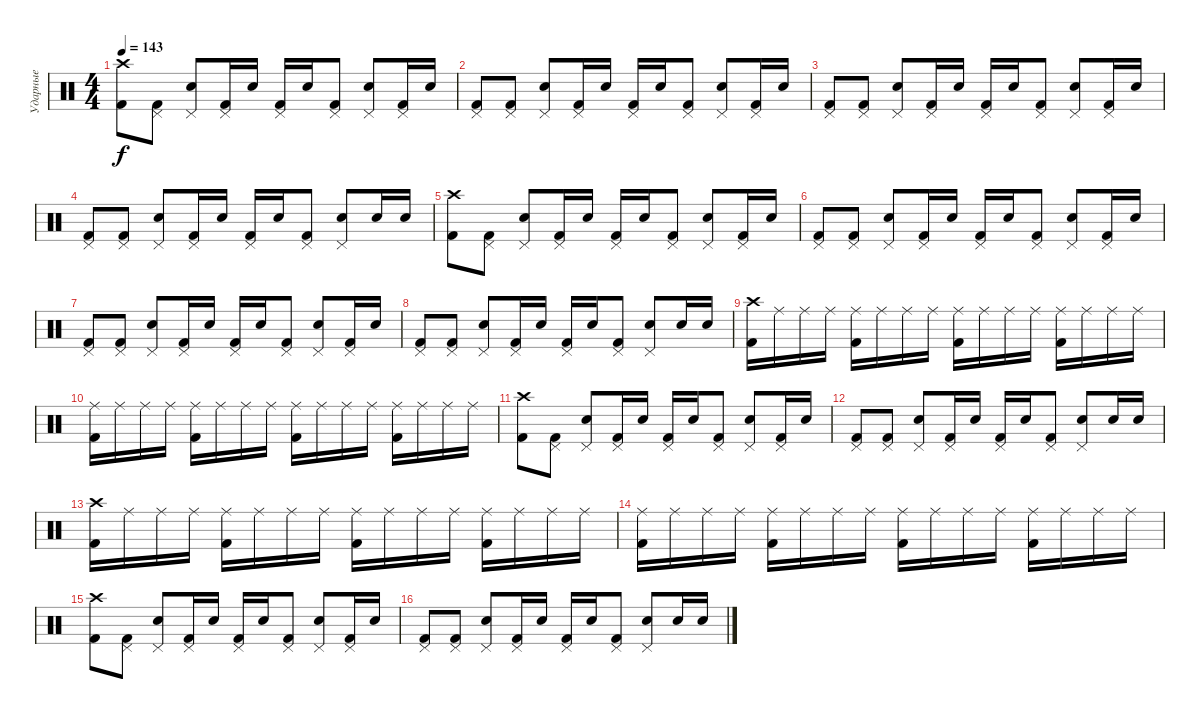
\track ("Ударные" "Ударные") {instrument percussion}
\staff {score}
\articulation defaults
\ts (4 4)
\tempo 143
\clef neutral
\ks c
("Crash high (hit)" "Kick (hit) 2").8{dy f} ("Pedal Hi-Hat (hit)" "Kick (hit) 2").8 ("Pedal Hi-Hat (hit)" "Electric Snare (hit)").8 ("Pedal Hi-Hat (hit)" "Kick (hit) 2").16 "Electric Snare (hit)".16 ("Pedal Hi-Hat (hit)" "Kick (hit) 2").16 "Electric Snare (hit)".16 ("Pedal Hi-Hat (hit)" "Kick (hit) 2").8 ("Pedal Hi-Hat (hit)" "Electric Snare (hit)").8 ("Pedal Hi-Hat (hit)" "Kick (hit) 2").16 "Electric Snare (hit)".16 |
("Pedal Hi-Hat (hit)" "Kick (hit) 2").8 ("Pedal Hi-Hat (hit)" "Kick (hit) 2").8 ("Pedal Hi-Hat (hit)" "Electric Snare (hit)").8 ("Pedal Hi-Hat (hit)" "Kick (hit) 2").16 "Electric Snare (hit)".16 ("Pedal Hi-Hat (hit)" "Kick (hit) 2").16 "Electric Snare (hit)".16 ("Pedal Hi-Hat (hit)" "Kick (hit) 2").8 ("Pedal Hi-Hat (hit)" "Electric Snare (hit)").8 ("Pedal Hi-Hat (hit)" "Kick (hit) 2").16 "Electric Snare (hit)".16 |
("Pedal Hi-Hat (hit)" "Kick (hit) 2").8 ("Pedal Hi-Hat (hit)" "Kick (hit) 2").8 ("Pedal Hi-Hat (hit)" "Electric Snare (hit)").8 ("Pedal Hi-Hat (hit)" "Kick (hit) 2").16 "Electric Snare (hit)".16 ("Pedal Hi-Hat (hit)" "Kick (hit) 2").16 "Electric Snare (hit)".16 ("Pedal Hi-Hat (hit)" "Kick (hit) 2").8 ("Pedal Hi-Hat (hit)" "Electric Snare (hit)").8 ("Pedal Hi-Hat (hit)" "Kick (hit) 2").16 "Electric Snare (hit)".16 |
("Pedal Hi-Hat (hit)" "Kick (hit) 2").8 ("Pedal Hi-Hat (hit)" "Kick (hit) 2").8 ("Pedal Hi-Hat (hit)" "Electric Snare (hit)").8 ("Pedal Hi-Hat (hit)" "Kick (hit) 2").16 "Electric Snare (hit)".16 ("Pedal Hi-Hat (hit)" "Kick (hit) 2").16 "Electric Snare (hit)".16 ("Pedal Hi-Hat (hit)" "Kick (hit) 2").8 ("Pedal Hi-Hat (hit)" "Electric Snare (hit)").8 "Electric Snare (hit)".16 "Electric Snare (hit)".16 |
("Crash high (hit)" "Kick (hit) 2").8 ("Pedal Hi-Hat (hit)" "Kick (hit) 2").8 ("Pedal Hi-Hat (hit)" "Electric Snare (hit)").8 ("Pedal Hi-Hat (hit)" "Kick (hit) 2").16 "Electric Snare (hit)".16 ("Pedal Hi-Hat (hit)" "Kick (hit) 2").16 "Electric Snare (hit)".16 ("Pedal Hi-Hat (hit)" "Kick (hit) 2").8 ("Pedal Hi-Hat (hit)" "Electric Snare (hit)").8 ("Pedal Hi-Hat (hit)" "Kick (hit) 2").16 "Electric Snare (hit)".16 |
("Pedal Hi-Hat (hit)" "Kick (hit) 2").8 ("Pedal Hi-Hat (hit)" "Kick (hit) 2").8 ("Pedal Hi-Hat (hit)" "Electric Snare (hit)").8 ("Pedal Hi-Hat (hit)" "Kick (hit) 2").16 "Electric Snare (hit)".16 ("Pedal Hi-Hat (hit)" "Kick (hit) 2").16 "Electric Snare (hit)".16 ("Pedal Hi-Hat (hit)" "Kick (hit) 2").8 ("Pedal Hi-Hat (hit)" "Electric Snare (hit)").8 ("Pedal Hi-Hat (hit)" "Kick (hit) 2").16 "Electric Snare (hit)".16 |
("Pedal Hi-Hat (hit)" "Kick (hit) 2").8 ("Pedal Hi-Hat (hit)" "Kick (hit) 2").8 ("Pedal Hi-Hat (hit)" "Electric Snare (hit)").8 ("Pedal Hi-Hat (hit)" "Kick (hit) 2").16 "Electric Snare (hit)".16 ("Pedal Hi-Hat (hit)" "Kick (hit) 2").16 "Electric Snare (hit)".16 ("Pedal Hi-Hat (hit)" "Kick (hit) 2").8 ("Pedal Hi-Hat (hit)" "Electric Snare (hit)").8 ("Pedal Hi-Hat (hit)" "Kick (hit) 2").16 "Electric Snare (hit)".16 |
("Pedal Hi-Hat (hit)" "Kick (hit) 2").8 ("Pedal Hi-Hat (hit)" "Kick (hit) 2").8 ("Pedal Hi-Hat (hit)" "Electric Snare (hit)").8 ("Pedal Hi-Hat (hit)" "Kick (hit) 2").16 "Electric Snare (hit)".16 ("Pedal Hi-Hat (hit)" "Kick (hit) 2").16 "Electric Snare (hit)".16 ("Pedal Hi-Hat (hit)" "Kick (hit) 2").8 ("Pedal Hi-Hat (hit)" "Electric Snare (hit)").8 "Electric Snare (hit)".16 "Electric Snare (hit)".16 |
("Crash high (hit)" "Kick (hit) 2").16 "Ride (middle)".16 "Ride (middle)".16 "Ride (middle)".16 ("Ride (middle)" "Kick (hit) 2").16 "Ride (middle)".16 "Ride (middle)".16 "Ride (middle)".16 ("Ride (middle)" "Kick (hit) 2").16 "Ride (middle)".16 "Ride (middle)".16 "Ride (middle)".16 ("Ride (middle)" "Kick (hit) 2").16 "Ride (middle)".16 "Ride (middle)".16 "Ride (middle)".16 |
("Ride (middle)" "Kick (hit) 2").16 "Ride (middle)".16 "Ride (middle)".16 "Ride (middle)".16 ("Ride (middle)" "Kick (hit) 2").16 "Ride (middle)".16 "Ride (middle)".16 "Ride (middle)".16 ("Ride (middle)" "Kick (hit) 2").16 "Ride (middle)".16 "Ride (middle)".16 "Ride (middle)".16 ("Ride (middle)" "Kick (hit) 2").16 "Ride (middle)".16 "Ride (middle)".16 "Ride (middle)".16 |
("Crash high (hit)" "Kick (hit) 2").8 ("Pedal Hi-Hat (hit)" "Kick (hit) 2").8 ("Pedal Hi-Hat (hit)" "Electric Snare (hit)").8 ("Pedal Hi-Hat (hit)" "Kick (hit) 2").16 "Electric Snare (hit)".16 ("Pedal Hi-Hat (hit)" "Kick (hit) 2").16 "Electric Snare (hit)".16 ("Pedal Hi-Hat (hit)" "Kick (hit) 2").8 ("Pedal Hi-Hat (hit)" "Electric Snare (hit)").8 ("Pedal Hi-Hat (hit)" "Kick (hit) 2").16 "Electric Snare (hit)".16 |
("Pedal Hi-Hat (hit)" "Kick (hit) 2").8 ("Pedal Hi-Hat (hit)" "Kick (hit) 2").8 ("Pedal Hi-Hat (hit)" "Electric Snare (hit)").8 ("Pedal Hi-Hat (hit)" "Kick (hit) 2").16 "Electric Snare (hit)".16 ("Pedal Hi-Hat (hit)" "Kick (hit) 2").16 "Electric Snare (hit)".16 ("Pedal Hi-Hat (hit)" "Kick (hit) 2").8 ("Pedal Hi-Hat (hit)" "Electric Snare (hit)").8 "Electric Snare (hit)".16 "Electric Snare (hit)".16 |
("Crash high (hit)" "Kick (hit) 2").16 "Ride (middle)".16 "Ride (middle)".16 "Ride (middle)".16 ("Ride (middle)" "Kick (hit) 2").16 "Ride (middle)".16 "Ride (middle)".16 "Ride (middle)".16 ("Ride (middle)" "Kick (hit) 2").16 "Ride (middle)".16 "Ride (middle)".16 "Ride (middle)".16 ("Ride (middle)" "Kick (hit) 2").16 "Ride (middle)".16 "Ride (middle)".16 "Ride (middle)".16 |
("Ride (middle)" "Kick (hit) 2").16 "Ride (middle)".16 "Ride (middle)".16 "Ride (middle)".16 ("Ride (middle)" "Kick (hit) 2").16 "Ride (middle)".16 "Ride (middle)".16 "Ride (middle)".16 ("Ride (middle)" "Kick (hit) 2").16 "Ride (middle)".16 "Ride (middle)".16 "Ride (middle)".16 ("Ride (middle)" "Kick (hit) 2").16 "Ride (middle)".16 "Ride (middle)".16 "Ride (middle)".16 |
("Crash high (hit)" "Kick (hit) 2").8 ("Pedal Hi-Hat (hit)" "Kick (hit) 2").8 ("Pedal Hi-Hat (hit)" "Electric Snare (hit)").8 ("Pedal Hi-Hat (hit)" "Kick (hit) 2").16 "Electric Snare (hit)".16 ("Pedal Hi-Hat (hit)" "Kick (hit) 2").16 "Electric Snare (hit)".16 ("Pedal Hi-Hat (hit)" "Kick (hit) 2").8 ("Pedal Hi-Hat (hit)" "Electric Snare (hit)").8 ("Pedal Hi-Hat (hit)" "Kick (hit) 2").16 "Electric Snare (hit)".16 |
("Pedal Hi-Hat (hit)" "Kick (hit) 2").8 ("Pedal Hi-Hat (hit)" "Kick (hit) 2").8 ("Pedal Hi-Hat (hit)" "Electric Snare (hit)").8 ("Pedal Hi-Hat (hit)" "Kick (hit) 2").16 "Electric Snare (hit)".16 ("Pedal Hi-Hat (hit)" "Kick (hit) 2").16 "Electric Snare (hit)".16 ("Pedal Hi-Hat (hit)" "Kick (hit) 2").8 ("Pedal Hi-Hat (hit)" "Electric Snare (hit)").8 "Electric Snare (hit)".16 "Electric Snare (hit)".16
